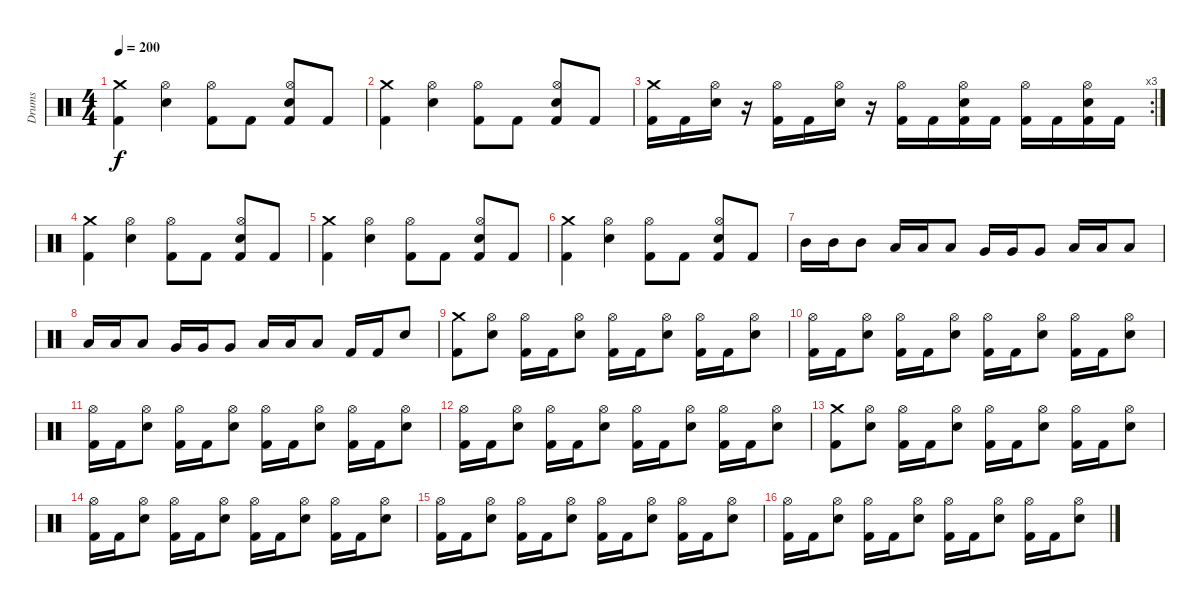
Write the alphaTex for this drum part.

\track ("Drums" "Drums") {instrument percussion}
\staff {score}
\articulation defaults
\ts (4 4)
\tempo 200
\clef neutral
\ks c
("Crash medium (hit)" "Kick (hit) 2").4{dy f} ("Hi-Hat (open)" "Electric Snare (hit)").4 ("Hi-Hat (open)" "Kick (hit) 2").8 "Kick (hit) 2".8 ("Hi-Hat (open)" "Electric Snare (hit)" "Kick (hit) 2").8 "Kick (hit) 2".8 |
("Crash medium (hit)" "Kick (hit) 2").4 ("Hi-Hat (open)" "Electric Snare (hit)").4 ("Hi-Hat (open)" "Kick (hit) 2").8 "Kick (hit) 2".8 ("Hi-Hat (open)" "Electric Snare (hit)" "Kick (hit) 2").8 "Kick (hit) 2".8 |
\rc 3
("Crash medium (hit)" "Kick (hit) 2").16 "Kick (hit) 2".16 ("Hi-Hat (open)" "Electric Snare (hit)").16 r.16 ("Hi-Hat (open)" "Kick (hit) 2").16 "Kick (hit) 2".16 ("Hi-Hat (open)" "Electric Snare (hit)").16 r.16 ("Hi-Hat (open)" "Kick (hit) 2").16 "Kick (hit) 2".16 ("Hi-Hat (open)" "Electric Snare (hit)" "Kick (hit) 2").16 "Kick (hit) 2".16 ("Hi-Hat (open)" "Kick (hit) 2").16 "Kick (hit) 2".16 ("Hi-Hat (open)" "Electric Snare (hit)" "Kick (hit) 2").16 "Kick (hit) 2".16 |
("Crash medium (hit)" "Kick (hit) 2").4 ("Hi-Hat (open)" "Electric Snare (hit)").4 ("Hi-Hat (open)" "Kick (hit) 2").8 "Kick (hit) 2".8 ("Hi-Hat (open)" "Electric Snare (hit)" "Kick (hit) 2").8 "Kick (hit) 2".8 |
("Crash medium (hit)" "Kick (hit) 2").4 ("Hi-Hat (open)" "Electric Snare (hit)").4 ("Hi-Hat (open)" "Kick (hit) 2").8 "Kick (hit) 2".8 ("Hi-Hat (open)" "Electric Snare (hit)" "Kick (hit) 2").8 "Kick (hit) 2".8 |
("Crash medium (hit)" "Kick (hit) 2").4 ("Hi-Hat (open)" "Electric Snare (hit)").4 ("Hi-Hat (open)" "Kick (hit) 2").8 "Kick (hit) 2".8 ("Hi-Hat (open)" "Electric Snare (hit)" "Kick (hit) 2").8 "Kick (hit) 2".8 |
"Mid Tom (hit)".16 "Mid Tom (hit)".16 "Mid Tom (hit)".8 "Low Tom (hit)".16 "Low Tom (hit)".16 "Low Tom (hit)".8 "Very Low Tom (hit)".16 "Very Low Tom (hit)".16 "Very Low Tom (hit)".8 "Low Floor Tom (hit)".16 "Low Floor Tom (hit)".16 "Low Floor Tom (hit)".8 |
"Low Tom (hit)".16 "Low Tom (hit)".16 "Low Tom (hit)".8 "Very Low Tom (hit)".16 "Very Low Tom (hit)".16 "Very Low Tom (hit)".8 "Low Floor Tom (hit)".16 "Low Floor Tom (hit)".16 "Low Floor Tom (hit)".8 "Kick (hit) 2".16 "Kick (hit) 2".16 "Electric Snare (hit)".8 |
("Crash medium (hit)" "Kick (hit) 2").8 ("Hi-Hat (open)" "Electric Snare (hit)").8 ("Hi-Hat (open)" "Kick (hit) 2").16 "Kick (hit) 2".16 ("Hi-Hat (open)" "Electric Snare (hit)").8 ("Hi-Hat (open)" "Kick (hit) 2").16 "Kick (hit) 2".16 ("Hi-Hat (open)" "Electric Snare (hit)").8 ("Hi-Hat (open)" "Kick (hit) 2").16 "Kick (hit) 2".16 ("Hi-Hat (open)" "Electric Snare (hit)").8 |
("Hi-Hat (open)" "Kick (hit) 2").16 "Kick (hit) 2".16 ("Hi-Hat (open)" "Electric Snare (hit)").8 ("Hi-Hat (open)" "Kick (hit) 2").16 "Kick (hit) 2".16 ("Hi-Hat (open)" "Electric Snare (hit)").8 ("Hi-Hat (open)" "Kick (hit) 2").16 "Kick (hit) 2".16 ("Hi-Hat (open)" "Electric Snare (hit)").8 ("Hi-Hat (open)" "Kick (hit) 2").16 "Kick (hit) 2".16 ("Hi-Hat (open)" "Electric Snare (hit)").8 |
("Hi-Hat (open)" "Kick (hit) 2").16 "Kick (hit) 2".16 ("Hi-Hat (open)" "Electric Snare (hit)").8 ("Hi-Hat (open)" "Kick (hit) 2").16 "Kick (hit) 2".16 ("Hi-Hat (open)" "Electric Snare (hit)").8 ("Hi-Hat (open)" "Kick (hit) 2").16 "Kick (hit) 2".16 ("Hi-Hat (open)" "Electric Snare (hit)").8 ("Hi-Hat (open)" "Kick (hit) 2").16 "Kick (hit) 2".16 ("Hi-Hat (open)" "Electric Snare (hit)").8 |
("Hi-Hat (open)" "Kick (hit) 2").16 "Kick (hit) 2".16 ("Hi-Hat (open)" "Electric Snare (hit)").8 ("Hi-Hat (open)" "Kick (hit) 2").16 "Kick (hit) 2".16 ("Hi-Hat (open)" "Electric Snare (hit)").8 ("Hi-Hat (open)" "Kick (hit) 2").16 "Kick (hit) 2".16 ("Hi-Hat (open)" "Electric Snare (hit)").8 ("Hi-Hat (open)" "Kick (hit) 2").16 "Kick (hit) 2".16 ("Hi-Hat (open)" "Electric Snare (hit)").8 |
("Crash medium (hit)" "Kick (hit) 2").8 ("Hi-Hat (open)" "Electric Snare (hit)").8 ("Hi-Hat (open)" "Kick (hit) 2").16 "Kick (hit) 2".16 ("Hi-Hat (open)" "Electric Snare (hit)").8 ("Hi-Hat (open)" "Kick (hit) 2").16 "Kick (hit) 2".16 ("Hi-Hat (open)" "Electric Snare (hit)").8 ("Hi-Hat (open)" "Kick (hit) 2").16 "Kick (hit) 2".16 ("Hi-Hat (open)" "Electric Snare (hit)").8 |
("Hi-Hat (open)" "Kick (hit) 2").16 "Kick (hit) 2".16 ("Hi-Hat (open)" "Electric Snare (hit)").8 ("Hi-Hat (open)" "Kick (hit) 2").16 "Kick (hit) 2".16 ("Hi-Hat (open)" "Electric Snare (hit)").8 ("Hi-Hat (open)" "Kick (hit) 2").16 "Kick (hit) 2".16 ("Hi-Hat (open)" "Electric Snare (hit)").8 ("Hi-Hat (open)" "Kick (hit) 2").16 "Kick (hit) 2".16 ("Hi-Hat (open)" "Electric Snare (hit)").8 |
("Hi-Hat (open)" "Kick (hit) 2").16 "Kick (hit) 2".16 ("Hi-Hat (open)" "Electric Snare (hit)").8 ("Hi-Hat (open)" "Kick (hit) 2").16 "Kick (hit) 2".16 ("Hi-Hat (open)" "Electric Snare (hit)").8 ("Hi-Hat (open)" "Kick (hit) 2").16 "Kick (hit) 2".16 ("Hi-Hat (open)" "Electric Snare (hit)").8 ("Hi-Hat (open)" "Kick (hit) 2").16 "Kick (hit) 2".16 ("Hi-Hat (open)" "Electric Snare (hit)").8 |
("Hi-Hat (open)" "Kick (hit) 2").16 "Kick (hit) 2".16 ("Hi-Hat (open)" "Electric Snare (hit)").8 ("Hi-Hat (open)" "Kick (hit) 2").16 "Kick (hit) 2".16 ("Hi-Hat (open)" "Electric Snare (hit)").8 ("Hi-Hat (open)" "Kick (hit) 2").16 "Kick (hit) 2".16 ("Hi-Hat (open)" "Electric Snare (hit)").8 ("Hi-Hat (open)" "Kick (hit) 2").16 "Kick (hit) 2".16 ("Hi-Hat (open)" "Electric Snare (hit)").8
